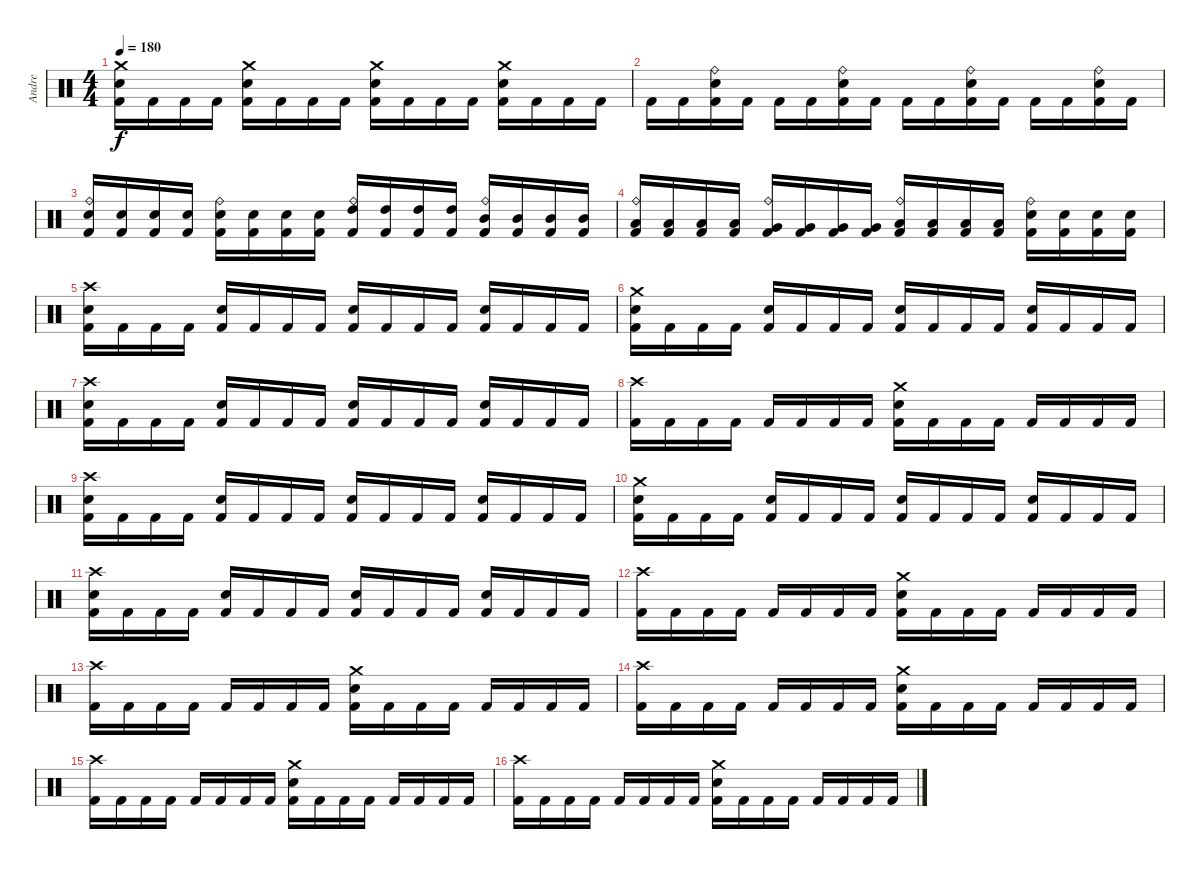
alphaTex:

\track ("Andre" "Andre") {instrument percussion}
\staff {score}
\articulation defaults
\ts (4 4)
\tempo 180
\clef neutral
\ks c
("Crash medium (hit)" "Snare (hit) 2" "Kick (hit) 2").16{dy f} "Kick (hit) 2".16 "Kick (hit) 2".16 "Kick (hit) 2".16 ("Crash medium (hit)" "Snare (hit) 2" "Kick (hit) 2").16 "Kick (hit) 2".16 "Kick (hit) 2".16 "Kick (hit) 2".16 ("Crash medium (hit)" "Snare (hit) 2" "Kick (hit) 2").16 "Kick (hit) 2".16 "Kick (hit) 2".16 "Kick (hit) 2".16 ("Crash medium (hit)" "Snare (hit) 2" "Kick (hit) 2").16 "Kick (hit) 2".16 "Kick (hit) 2".16 "Kick (hit) 2".16 |
"Kick (hit) 2".16 "Kick (hit) 2".16 ("Ride (bell)" "Snare (hit) 2" "Kick (hit) 2").16 "Kick (hit) 2".16 "Kick (hit) 2".16 "Kick (hit) 2".16 ("Ride (bell)" "Snare (hit) 2" "Kick (hit) 2").16 "Kick (hit) 2".16 "Kick (hit) 2".16 "Kick (hit) 2".16 ("Ride (bell)" "Snare (hit) 2" "Kick (hit) 2").16 "Kick (hit) 2".16 "Kick (hit) 2".16 "Kick (hit) 2".16 ("Ride (bell)" "Snare (hit) 2" "Kick (hit) 2").16 "Kick (hit) 2".16 |
("Ride (bell)" "Electric Snare (hit)" "Kick (hit) 2").16 ("Electric Snare (hit)" "Kick (hit) 2").16 ("Electric Snare (hit)" "Kick (hit) 2").16 ("Electric Snare (hit)" "Kick (hit) 2").16 ("Ride (bell)" "Snare (hit) 2" "Kick (hit) 2").16 ("Snare (hit) 2" "Kick (hit) 2").16 ("Snare (hit) 2" "Kick (hit) 2").16 ("Snare (hit) 2" "Kick (hit) 2").16 ("Ride (bell)" "High Tom (hit)" "Kick (hit) 2").16 ("High Tom (hit)" "Kick (hit) 2").16 ("High Tom (hit)" "Kick (hit) 2").16 ("High Tom (hit)" "Kick (hit) 2").16 ("Ride (bell)" "Mid Tom (hit)" "Kick (hit) 2").16 ("Mid Tom (hit)" "Kick (hit) 2").16 ("Mid Tom (hit)" "Kick (hit) 2").16 ("Mid Tom (hit)" "Kick (hit) 2").16 |
("Ride (bell)" "Low Tom (hit)" "Kick (hit) 2").16 ("Low Tom (hit)" "Kick (hit) 2").16 ("Low Tom (hit)" "Kick (hit) 2").16 ("Low Tom (hit)" "Kick (hit) 2").16 ("Ride (bell)" "Very Low Tom (hit)" "Kick (hit) 2").16 ("Very Low Tom (hit)" "Kick (hit) 2").16 ("Very Low Tom (hit)" "Kick (hit) 2").16 ("Very Low Tom (hit)" "Kick (hit) 2").16 ("Ride (bell)" "Low Floor Tom (hit)" "Kick (hit) 2").16 ("Low Floor Tom (hit)" "Kick (hit) 2").16 ("Low Floor Tom (hit)" "Kick (hit) 2").16 ("Low Floor Tom (hit)" "Kick (hit) 2").16 ("Ride (bell)" "Snare (hit) 2" "Kick (hit) 2").16 ("Snare (hit) 2" "Kick (hit) 2").16 ("Snare (hit) 2" "Kick (hit) 2").16 ("Snare (hit) 2" "Kick (hit) 2").16 |
("Crash high (hit)" "Snare (hit) 2" "Kick (hit) 2").16 "Kick (hit) 2".16 "Kick (hit) 2".16 "Kick (hit) 2".16 ("Snare (hit) 2" "Kick (hit) 2").16 "Kick (hit) 2".16 "Kick (hit) 2".16 "Kick (hit) 2".16 ("Snare (hit) 2" "Kick (hit) 2").16 "Kick (hit) 2".16 "Kick (hit) 2".16 "Kick (hit) 2".16 ("Snare (hit) 2" "Kick (hit) 2").16 "Kick (hit) 2".16 "Kick (hit) 2".16 "Kick (hit) 2".16 |
("Crash medium (hit)" "Snare (hit) 2" "Kick (hit) 2").16 "Kick (hit) 2".16 "Kick (hit) 2".16 "Kick (hit) 2".16 ("Snare (hit) 2" "Kick (hit) 2").16 "Kick (hit) 2".16 "Kick (hit) 2".16 "Kick (hit) 2".16 ("Snare (hit) 2" "Kick (hit) 2").16 "Kick (hit) 2".16 "Kick (hit) 2".16 "Kick (hit) 2".16 ("Snare (hit) 2" "Kick (hit) 2").16 "Kick (hit) 2".16 "Kick (hit) 2".16 "Kick (hit) 2".16 |
("Crash high (hit)" "Snare (hit) 2" "Kick (hit) 2").16 "Kick (hit) 2".16 "Kick (hit) 2".16 "Kick (hit) 2".16 ("Snare (hit) 2" "Kick (hit) 2").16 "Kick (hit) 2".16 "Kick (hit) 2".16 "Kick (hit) 2".16 ("Snare (hit) 2" "Kick (hit) 2").16 "Kick (hit) 2".16 "Kick (hit) 2".16 "Kick (hit) 2".16 ("Snare (hit) 2" "Kick (hit) 2").16 "Kick (hit) 2".16 "Kick (hit) 2".16 "Kick (hit) 2".16 |
("Crash high (hit)" "Kick (hit) 2").16 "Kick (hit) 2".16 "Kick (hit) 2".16 "Kick (hit) 2".16 "Kick (hit) 2".16 "Kick (hit) 2".16 "Kick (hit) 2".16 "Kick (hit) 2".16 ("Crash medium (hit)" "Snare (hit) 2" "Kick (hit) 2").16 "Kick (hit) 2".16 "Kick (hit) 2".16 "Kick (hit) 2".16 "Kick (hit) 2".16 "Kick (hit) 2".16 "Kick (hit) 2".16 "Kick (hit) 2".16 |
("Crash high (hit)" "Snare (hit) 2" "Kick (hit) 2").16 "Kick (hit) 2".16 "Kick (hit) 2".16 "Kick (hit) 2".16 ("Snare (hit) 2" "Kick (hit) 2").16 "Kick (hit) 2".16 "Kick (hit) 2".16 "Kick (hit) 2".16 ("Snare (hit) 2" "Kick (hit) 2").16 "Kick (hit) 2".16 "Kick (hit) 2".16 "Kick (hit) 2".16 ("Snare (hit) 2" "Kick (hit) 2").16 "Kick (hit) 2".16 "Kick (hit) 2".16 "Kick (hit) 2".16 |
("Crash medium (hit)" "Snare (hit) 2" "Kick (hit) 2").16 "Kick (hit) 2".16 "Kick (hit) 2".16 "Kick (hit) 2".16 ("Snare (hit) 2" "Kick (hit) 2").16 "Kick (hit) 2".16 "Kick (hit) 2".16 "Kick (hit) 2".16 ("Snare (hit) 2" "Kick (hit) 2").16 "Kick (hit) 2".16 "Kick (hit) 2".16 "Kick (hit) 2".16 ("Snare (hit) 2" "Kick (hit) 2").16 "Kick (hit) 2".16 "Kick (hit) 2".16 "Kick (hit) 2".16 |
("Crash high (hit)" "Snare (hit) 2" "Kick (hit) 2").16 "Kick (hit) 2".16 "Kick (hit) 2".16 "Kick (hit) 2".16 ("Snare (hit) 2" "Kick (hit) 2").16 "Kick (hit) 2".16 "Kick (hit) 2".16 "Kick (hit) 2".16 ("Snare (hit) 2" "Kick (hit) 2").16 "Kick (hit) 2".16 "Kick (hit) 2".16 "Kick (hit) 2".16 ("Snare (hit) 2" "Kick (hit) 2").16 "Kick (hit) 2".16 "Kick (hit) 2".16 "Kick (hit) 2".16 |
("Crash high (hit)" "Kick (hit) 2").16 "Kick (hit) 2".16 "Kick (hit) 2".16 "Kick (hit) 2".16 "Kick (hit) 2".16 "Kick (hit) 2".16 "Kick (hit) 2".16 "Kick (hit) 2".16 ("Crash medium (hit)" "Snare (hit) 2" "Kick (hit) 2").16 "Kick (hit) 2".16 "Kick (hit) 2".16 "Kick (hit) 2".16 "Kick (hit) 2".16 "Kick (hit) 2".16 "Kick (hit) 2".16 "Kick (hit) 2".16 |
("Crash high (hit)" "Kick (hit) 2").16 "Kick (hit) 2".16 "Kick (hit) 2".16 "Kick (hit) 2".16 "Kick (hit) 2".16 "Kick (hit) 2".16 "Kick (hit) 2".16 "Kick (hit) 2".16 ("Crash medium (hit)" "Snare (hit) 2" "Kick (hit) 2").16 "Kick (hit) 2".16 "Kick (hit) 2".16 "Kick (hit) 2".16 "Kick (hit) 2".16 "Kick (hit) 2".16 "Kick (hit) 2".16 "Kick (hit) 2".16 |
("Crash high (hit)" "Kick (hit) 2").16 "Kick (hit) 2".16 "Kick (hit) 2".16 "Kick (hit) 2".16 "Kick (hit) 2".16 "Kick (hit) 2".16 "Kick (hit) 2".16 "Kick (hit) 2".16 ("Crash medium (hit)" "Snare (hit) 2" "Kick (hit) 2").16 "Kick (hit) 2".16 "Kick (hit) 2".16 "Kick (hit) 2".16 "Kick (hit) 2".16 "Kick (hit) 2".16 "Kick (hit) 2".16 "Kick (hit) 2".16 |
("Crash high (hit)" "Kick (hit) 2").16 "Kick (hit) 2".16 "Kick (hit) 2".16 "Kick (hit) 2".16 "Kick (hit) 2".16 "Kick (hit) 2".16 "Kick (hit) 2".16 "Kick (hit) 2".16 ("Crash medium (hit)" "Snare (hit) 2" "Kick (hit) 2").16 "Kick (hit) 2".16 "Kick (hit) 2".16 "Kick (hit) 2".16 "Kick (hit) 2".16 "Kick (hit) 2".16 "Kick (hit) 2".16 "Kick (hit) 2".16 |
("Crash high (hit)" "Kick (hit) 2").16 "Kick (hit) 2".16 "Kick (hit) 2".16 "Kick (hit) 2".16 "Kick (hit) 2".16 "Kick (hit) 2".16 "Kick (hit) 2".16 "Kick (hit) 2".16 ("Crash medium (hit)" "Snare (hit) 2" "Kick (hit) 2").16 "Kick (hit) 2".16 "Kick (hit) 2".16 "Kick (hit) 2".16 "Kick (hit) 2".16 "Kick (hit) 2".16 "Kick (hit) 2".16 "Kick (hit) 2".16
